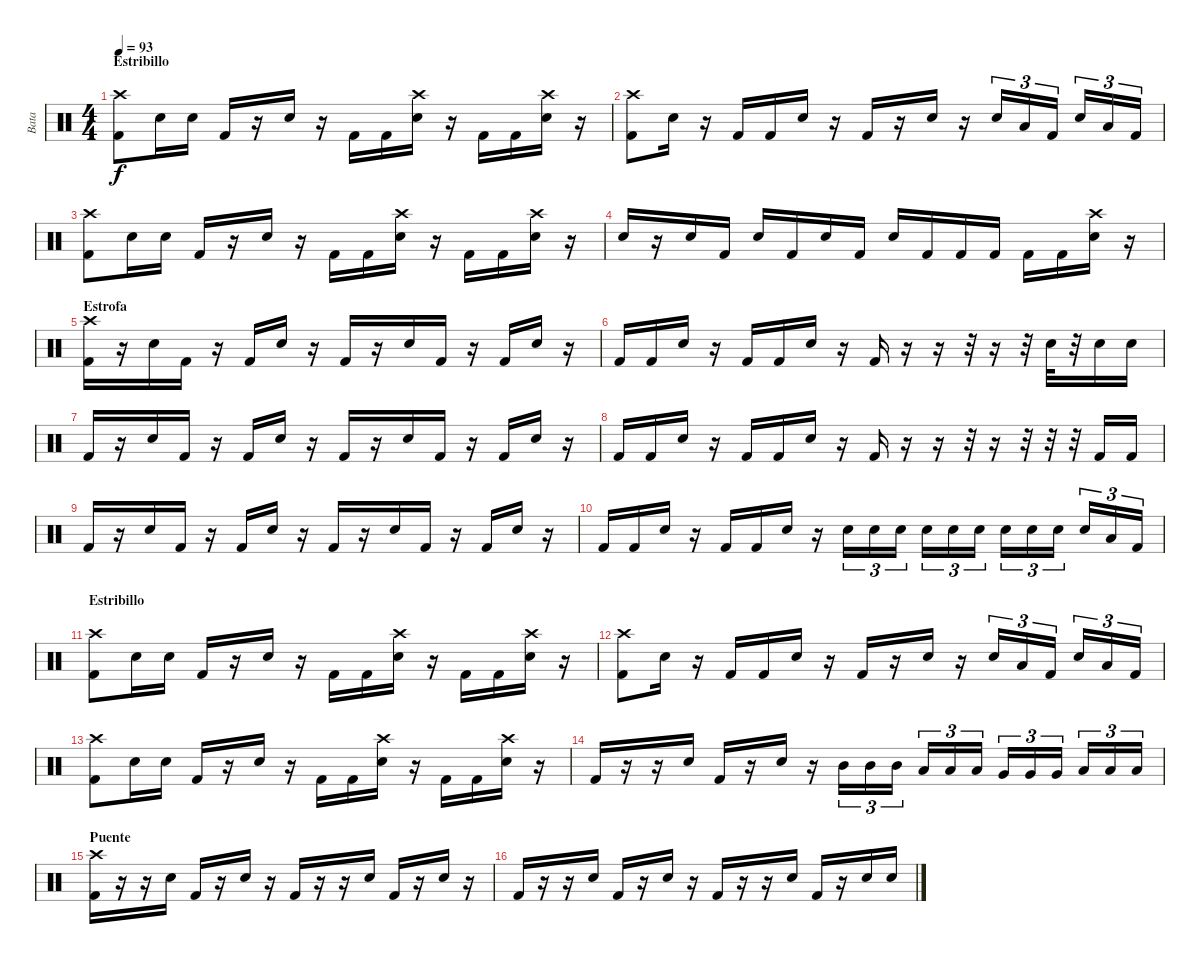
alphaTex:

\track ("Bata" "Bata") {instrument percussion}
\staff {score}
\articulation defaults
\ts (4 4)
\section ("" "Estribillo")
\tempo 93
\clef neutral
\ks c
("Crash high (hit)" "Kick (hit) 2").8{dy f} "Snare (hit) 2".16 "Snare (hit) 2".16 "Kick (hit) 2".16 r.16 "Snare (hit) 2".16 r.16 "Kick (hit) 2".16 "Kick (hit) 2".16 ("Crash high (hit)" "Snare (hit) 2").16 r.16 "Kick (hit) 2".16 "Kick (hit) 2".16 ("Crash high (hit)" "Snare (hit) 2").16 r.16 |
("Crash high (hit)" "Kick (hit) 2").8 "Snare (hit) 2".16 r.16 "Kick (hit) 2".16 "Kick (hit) 2".16 "Snare (hit) 2".16 r.16 "Kick (hit) 2".16 r.16 "Snare (hit) 2".16 r.16 "Snare (hit) 2".16{tu (3 2)} "Low Floor Tom (hit)".16{tu (3 2)} "Kick (hit) 2".16{tu (3 2)} "Snare (hit) 2".16{tu (3 2)} "Low Floor Tom (hit)".16{tu (3 2)} "Kick (hit) 2".16{tu (3 2)} |
("Crash high (hit)" "Kick (hit) 2").8 "Snare (hit) 2".16 "Snare (hit) 2".16 "Kick (hit) 2".16 r.16 "Snare (hit) 2".16 r.16 "Kick (hit) 2".16 "Kick (hit) 2".16 ("Crash high (hit)" "Snare (hit) 2").16 r.16 "Kick (hit) 2".16 "Kick (hit) 2".16 ("Crash high (hit)" "Snare (hit) 2").16 r.16 |
"Snare (hit) 2".16 r.16 "Snare (hit) 2".16 "Kick (hit) 2".16 "Snare (hit) 2".16 "Kick (hit) 2".16 "Snare (hit) 2".16 "Kick (hit) 2".16 "Snare (hit) 2".16 "Kick (hit) 2".16 "Kick (hit) 2".16 "Kick (hit) 2".16 "Kick (hit) 2".16 "Kick (hit) 2".16 ("Crash high (hit)" "Snare (hit) 2").16 r.16 |
\section ("" "Estrofa")
("Crash high (hit)" "Kick (hit) 2").16 r.16 "Snare (hit) 2".16 "Kick (hit) 2".16 r.16 "Kick (hit) 2".16 "Snare (hit) 2".16 r.16 "Kick (hit) 2".16 r.16 "Snare (hit) 2".16 "Kick (hit) 2".16 r.16 "Kick (hit) 2".16 "Snare (hit) 2".16 r.16 |
"Kick (hit) 2".16 "Kick (hit) 2".16 "Snare (hit) 2".16 r.16 "Kick (hit) 2".16 "Kick (hit) 2".16 "Snare (hit) 2".16 r.16 "Kick (hit) 2".16 r.16 r.16 r.32 r.16 r.32 "Snare (hit) 2".32 r.32 "Snare (hit) 2".16 "Snare (hit) 2".16 |
"Kick (hit) 2".16 r.16 "Snare (hit) 2".16 "Kick (hit) 2".16 r.16 "Kick (hit) 2".16 "Snare (hit) 2".16 r.16 "Kick (hit) 2".16 r.16 "Snare (hit) 2".16 "Kick (hit) 2".16 r.16 "Kick (hit) 2".16 "Snare (hit) 2".16 r.16 |
"Kick (hit) 2".16 "Kick (hit) 2".16 "Snare (hit) 2".16 r.16 "Kick (hit) 2".16 "Kick (hit) 2".16 "Snare (hit) 2".16 r.16 "Kick (hit) 2".16 r.16 r.16 r.32 r.16 r.32 r.32 r.32 "Kick (hit) 2".16 "Kick (hit) 2".16 |
"Kick (hit) 2".16 r.16 "Snare (hit) 2".16 "Kick (hit) 2".16 r.16 "Kick (hit) 2".16 "Snare (hit) 2".16 r.16 "Kick (hit) 2".16 r.16 "Snare (hit) 2".16 "Kick (hit) 2".16 r.16 "Kick (hit) 2".16 "Snare (hit) 2".16 r.16 |
"Kick (hit) 2".16 "Kick (hit) 2".16 "Snare (hit) 2".16 r.16 "Kick (hit) 2".16 "Kick (hit) 2".16 "Snare (hit) 2".16 r.16 "Snare (hit) 2".16{tu (3 2)} "Snare (hit) 2".16{tu (3 2)} "Snare (hit) 2".16{tu (3 2)} "Snare (hit) 2".16{tu (3 2)} "Snare (hit) 2".16{tu (3 2)} "Snare (hit) 2".16{tu (3 2)} "Snare (hit) 2".16{tu (3 2)} "Snare (hit) 2".16{tu (3 2)} "Snare (hit) 2".16{tu (3 2)} "Snare (hit) 2".16{tu (3 2)} "Low Floor Tom (hit)".16{tu (3 2)} "Kick (hit) 2".16{tu (3 2)} |
\section ("" "Estribillo")
("Crash high (hit)" "Kick (hit) 2").8 "Snare (hit) 2".16 "Snare (hit) 2".16 "Kick (hit) 2".16 r.16 "Snare (hit) 2".16 r.16 "Kick (hit) 2".16 "Kick (hit) 2".16 ("Crash high (hit)" "Snare (hit) 2").16 r.16 "Kick (hit) 2".16 "Kick (hit) 2".16 ("Crash high (hit)" "Snare (hit) 2").16 r.16 |
("Crash high (hit)" "Kick (hit) 2").8 "Snare (hit) 2".16 r.16 "Kick (hit) 2".16 "Kick (hit) 2".16 "Snare (hit) 2".16 r.16 "Kick (hit) 2".16 r.16 "Snare (hit) 2".16 r.16 "Snare (hit) 2".16{tu (3 2)} "Low Floor Tom (hit)".16{tu (3 2)} "Kick (hit) 2".16{tu (3 2)} "Snare (hit) 2".16{tu (3 2)} "Low Floor Tom (hit)".16{tu (3 2)} "Kick (hit) 2".16{tu (3 2)} |
("Crash high (hit)" "Kick (hit) 2").8 "Snare (hit) 2".16 "Snare (hit) 2".16 "Kick (hit) 2".16 r.16 "Snare (hit) 2".16 r.16 "Kick (hit) 2".16 "Kick (hit) 2".16 ("Crash high (hit)" "Snare (hit) 2").16 r.16 "Kick (hit) 2".16 "Kick (hit) 2".16 ("Crash high (hit)" "Snare (hit) 2").16 r.16 |
"Kick (hit) 2".16 r.16 r.16 "Snare (hit) 2".16 "Kick (hit) 2".16 r.16 "Snare (hit) 2".16 r.16 "Mid Tom (hit)".16{tu (3 2)} "Mid Tom (hit)".16{tu (3 2)} "Mid Tom (hit)".16{tu (3 2)} "Low Tom (hit)".16{tu (3 2)} "Low Tom (hit)".16{tu (3 2)} "Low Tom (hit)".16{tu (3 2)} "Very Low Tom (hit)".16{tu (3 2)} "Very Low Tom (hit)".16{tu (3 2)} "Very Low Tom (hit)".16{tu (3 2)} "Low Floor Tom (hit)".16{tu (3 2)} "Low Floor Tom (hit)".16{tu (3 2)} "Low Floor Tom (hit)".16{tu (3 2)} |
\section ("" "Puente")
("Kick (hit) 2" "Crash high (hit)").16 r.16 r.16 "Snare (hit) 2".16 "Kick (hit) 2".16 r.16 "Snare (hit) 2".16 r.16 "Kick (hit) 2".16 r.16 r.16 "Snare (hit) 2".16 "Kick (hit) 2".16 r.16 "Snare (hit) 2".16 r.16 |
"Kick (hit) 2".16 r.16 r.16 "Snare (hit) 2".16 "Kick (hit) 2".16 r.16 "Snare (hit) 2".16 r.16 "Kick (hit) 2".16 r.16 r.16 "Snare (hit) 2".16 "Kick (hit) 2".16 r.16 "Snare (hit) 2".16 "Snare (hit) 2".16
